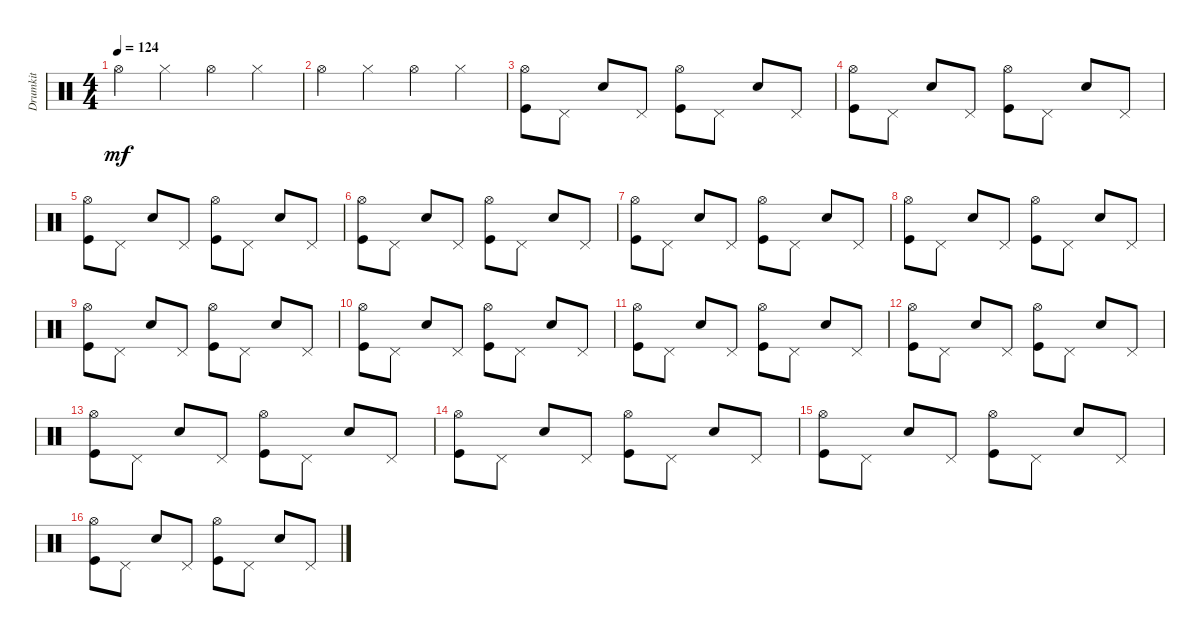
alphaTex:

\track ("Drumkit" "Drumkit") {instrument percussion}
\staff {score}
\articulation defaults
\ts (4 4)
\tempo 124
\clef neutral
\ks c "Hi-Hat (open)".4{dy mf} "Hi-Hat (closed)".4 "Hi-Hat (open)".4 "Hi-Hat (closed)".4
|
"Hi-Hat (open)".4 "Hi-Hat (closed)".4 "Hi-Hat (open)".4 "Hi-Hat (closed)".4 |
("Kick (hit)" "Hi-Hat (open)").8 "Pedal Hi-Hat (hit)".8 "Snare (hit) 2".8 "Pedal Hi-Hat (hit)".8 ("Kick (hit)" "Hi-Hat (open)").8 "Pedal Hi-Hat (hit)".8 "Snare (hit) 2".8 "Pedal Hi-Hat (hit)".8 |
("Kick (hit)" "Hi-Hat (open)").8 "Pedal Hi-Hat (hit)".8 "Snare (hit) 2".8 "Pedal Hi-Hat (hit)".8 ("Kick (hit)" "Hi-Hat (open)").8 "Pedal Hi-Hat (hit)".8 "Snare (hit) 2".8 "Pedal Hi-Hat (hit)".8 |
("Kick (hit)" "Hi-Hat (open)").8 "Pedal Hi-Hat (hit)".8 "Snare (hit) 2".8 "Pedal Hi-Hat (hit)".8 ("Kick (hit)" "Hi-Hat (open)").8 "Pedal Hi-Hat (hit)".8 "Snare (hit) 2".8 "Pedal Hi-Hat (hit)".8 |
("Kick (hit)" "Hi-Hat (open)").8 "Pedal Hi-Hat (hit)".8 "Snare (hit) 2".8 "Pedal Hi-Hat (hit)".8 ("Kick (hit)" "Hi-Hat (open)").8 "Pedal Hi-Hat (hit)".8 "Snare (hit) 2".8 "Pedal Hi-Hat (hit)".8 |
("Kick (hit)" "Hi-Hat (open)").8 "Pedal Hi-Hat (hit)".8 "Snare (hit) 2".8 "Pedal Hi-Hat (hit)".8 ("Kick (hit)" "Hi-Hat (open)").8 "Pedal Hi-Hat (hit)".8 "Snare (hit) 2".8 "Pedal Hi-Hat (hit)".8 |
("Kick (hit)" "Hi-Hat (open)").8 "Pedal Hi-Hat (hit)".8 "Snare (hit) 2".8 "Pedal Hi-Hat (hit)".8 ("Kick (hit)" "Hi-Hat (open)").8 "Pedal Hi-Hat (hit)".8 "Snare (hit) 2".8 "Pedal Hi-Hat (hit)".8 |
("Kick (hit)" "Hi-Hat (open)").8 "Pedal Hi-Hat (hit)".8 "Snare (hit) 2".8 "Pedal Hi-Hat (hit)".8 ("Kick (hit)" "Hi-Hat (open)").8 "Pedal Hi-Hat (hit)".8 "Snare (hit) 2".8 "Pedal Hi-Hat (hit)".8 |
("Kick (hit)" "Hi-Hat (open)").8 "Pedal Hi-Hat (hit)".8 "Snare (hit) 2".8 "Pedal Hi-Hat (hit)".8 ("Kick (hit)" "Hi-Hat (open)").8 "Pedal Hi-Hat (hit)".8 "Snare (hit) 2".8 "Pedal Hi-Hat (hit)".8 |
("Kick (hit)" "Hi-Hat (open)").8 "Pedal Hi-Hat (hit)".8 "Snare (hit) 2".8 "Pedal Hi-Hat (hit)".8 ("Kick (hit)" "Hi-Hat (open)").8 "Pedal Hi-Hat (hit)".8 "Snare (hit) 2".8 "Pedal Hi-Hat (hit)".8 |
("Kick (hit)" "Hi-Hat (open)").8 "Pedal Hi-Hat (hit)".8 "Snare (hit) 2".8 "Pedal Hi-Hat (hit)".8 ("Kick (hit)" "Hi-Hat (open)").8 "Pedal Hi-Hat (hit)".8 "Snare (hit) 2".8 "Pedal Hi-Hat (hit)".8 |
("Kick (hit)" "Hi-Hat (open)").8 "Pedal Hi-Hat (hit)".8 "Snare (hit) 2".8 "Pedal Hi-Hat (hit)".8 ("Kick (hit)" "Hi-Hat (open)").8 "Pedal Hi-Hat (hit)".8 "Snare (hit) 2".8 "Pedal Hi-Hat (hit)".8 |
("Kick (hit)" "Hi-Hat (open)").8 "Pedal Hi-Hat (hit)".8 "Snare (hit) 2".8 "Pedal Hi-Hat (hit)".8 ("Kick (hit)" "Hi-Hat (open)").8 "Pedal Hi-Hat (hit)".8 "Snare (hit) 2".8 "Pedal Hi-Hat (hit)".8 |
("Kick (hit)" "Hi-Hat (open)").8 "Pedal Hi-Hat (hit)".8 "Snare (hit) 2".8 "Pedal Hi-Hat (hit)".8 ("Kick (hit)" "Hi-Hat (open)").8 "Pedal Hi-Hat (hit)".8 "Snare (hit) 2".8 "Pedal Hi-Hat (hit)".8 |
("Kick (hit)" "Hi-Hat (open)").8 "Pedal Hi-Hat (hit)".8 "Snare (hit) 2".8 "Pedal Hi-Hat (hit)".8 ("Kick (hit)" "Hi-Hat (open)").8 "Pedal Hi-Hat (hit)".8 "Snare (hit) 2".8 "Pedal Hi-Hat (hit)".8
